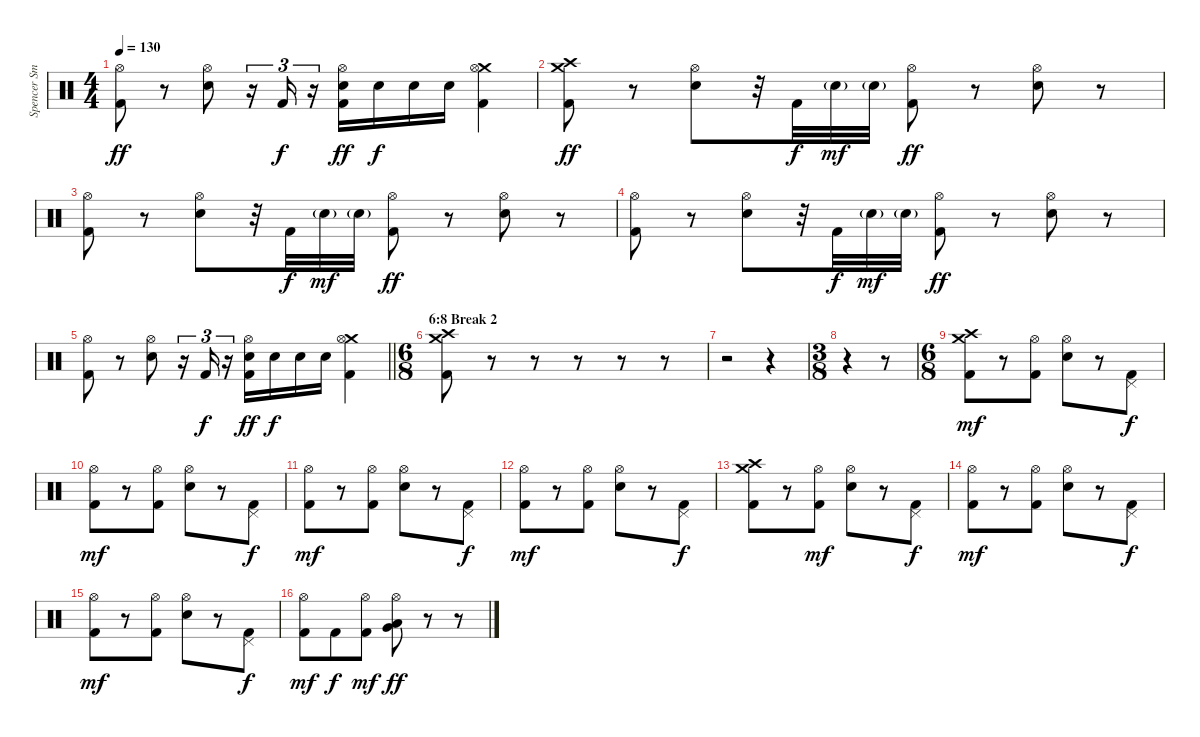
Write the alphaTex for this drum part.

\track ("Spencer Smith (Drums)" "Spencer Sm") {instrument percussion}
\staff {score}
\articulation defaults
\ts (4 4)
\tempo 130
\clef neutral
\ks c
("Hi-Hat (open)" "Kick (hit) 2").8{dy ff} r.8 ("Hi-Hat (open)" "Electric Snare (hit)").8 r.16{tu (3 2)} "Kick (hit) 2".16{tu (3 2) dy f} r.16{tu (3 2)} ("Hi-Hat (open)" "Electric Snare (hit)" "Kick (hit) 2").16{dy ff} "Electric Snare (hit)".16{dy f} "Electric Snare (hit)".16 "Electric Snare (hit)".16 ("Crash medium (hit)" "Hi-Hat (open)" "Kick (hit) 2").4 |
("Crash medium (hit)" "Crash high (hit)" "Kick (hit) 2").8{dy ff} r.8 ("Hi-Hat (open)" "Electric Snare (hit)").8 r.32 "Kick (hit) 2".32{dy f} "Electric Snare (hit)"{g}.32{dy mf} "Electric Snare (hit)"{g}.32 ("Hi-Hat (open)" "Kick (hit) 2").8{dy ff} r.8 ("Hi-Hat (open)" "Electric Snare (hit)").8 r.8 |
("Hi-Hat (open)" "Kick (hit) 2").8 r.8 ("Hi-Hat (open)" "Electric Snare (hit)").8 r.32 "Kick (hit) 2".32{dy f} "Electric Snare (hit)"{g}.32{dy mf} "Electric Snare (hit)"{g}.32 ("Hi-Hat (open)" "Kick (hit) 2").8{dy ff} r.8 ("Hi-Hat (open)" "Electric Snare (hit)").8 r.8 |
("Hi-Hat (open)" "Kick (hit) 2").8 r.8 ("Hi-Hat (open)" "Electric Snare (hit)").8 r.32 "Kick (hit) 2".32{dy f} "Electric Snare (hit)"{g}.32{dy mf} "Electric Snare (hit)"{g}.32 ("Hi-Hat (open)" "Kick (hit) 2").8{dy ff} r.8 ("Hi-Hat (open)" "Electric Snare (hit)").8 r.8 |
\barLineRight lightlight
("Hi-Hat (open)" "Kick (hit) 2").8 r.8 ("Hi-Hat (open)" "Electric Snare (hit)").8 r.16{tu (3 2)} "Kick (hit) 2".16{tu (3 2) dy f} r.16{tu (3 2)} ("Hi-Hat (open)" "Electric Snare (hit)" "Kick (hit) 2").16{dy ff} "Electric Snare (hit)".16{dy f} "Electric Snare (hit)".16 "Electric Snare (hit)".16 ("Crash medium (hit)" "Hi-Hat (open)" "Kick (hit) 2").4 |
\ts (6 8)
\section ("" "6:8 Break 2")
("Crash high (hit)" "Crash medium (hit)" "Kick (hit) 2").8 r.8 r.8 r.8 r.8 r.8 |
r.2 r.4 |
\ts (3 8)
r.4 r.8 |
\ts (6 8)
("Crash high (hit)" "Crash medium (hit)" "Kick (hit) 2").8{dy mf} r.8 ("Hi-Hat (open)" "Kick (hit) 2").8 ("Hi-Hat (open)" "Electric Snare (hit)").8 r.8 ("Pedal Hi-Hat (hit)" "Kick (hit) 2").8{dy f} |
("Hi-Hat (open)" "Kick (hit) 2").8{dy mf} r.8 ("Hi-Hat (open)" "Kick (hit) 2").8 ("Hi-Hat (open)" "Electric Snare (hit)").8 r.8 ("Pedal Hi-Hat (hit)" "Kick (hit) 2").8{dy f} |
("Hi-Hat (open)" "Kick (hit) 2").8{dy mf} r.8 ("Hi-Hat (open)" "Kick (hit) 2").8 ("Hi-Hat (open)" "Electric Snare (hit)").8 r.8 ("Pedal Hi-Hat (hit)" "Kick (hit) 2").8{dy f} |
("Hi-Hat (open)" "Kick (hit) 2").8{dy mf} r.8 ("Hi-Hat (open)" "Kick (hit) 2").8 ("Hi-Hat (open)" "Electric Snare (hit)").8 r.8 ("Pedal Hi-Hat (hit)" "Kick (hit) 2").8{dy f} |
("Crash high (hit)" "Crash medium (hit)" "Kick (hit) 2").8 r.8 ("Hi-Hat (open)" "Kick (hit) 2").8{dy mf} ("Hi-Hat (open)" "Electric Snare (hit)").8 r.8 ("Pedal Hi-Hat (hit)" "Kick (hit) 2").8{dy f} |
("Hi-Hat (open)" "Kick (hit) 2").8{dy mf} r.8 ("Hi-Hat (open)" "Kick (hit) 2").8 ("Hi-Hat (open)" "Electric Snare (hit)").8 r.8 ("Pedal Hi-Hat (hit)" "Kick (hit) 2").8{dy f} |
("Hi-Hat (open)" "Kick (hit) 2").8{dy mf} r.8 ("Hi-Hat (open)" "Kick (hit) 2").8 ("Hi-Hat (open)" "Electric Snare (hit)").8 r.8 ("Pedal Hi-Hat (hit)" "Kick (hit) 2").8{dy f} |
("Hi-Hat (open)" "Kick (hit) 2").8{dy mf} "Kick (hit) 2".8{dy f} ("Hi-Hat (open)" "Kick (hit) 2").8{dy mf} ("Hi-Hat (open)" "Low Tom (hit)" "Very Low Tom (hit)").8{dy ff} r.8 r.8
